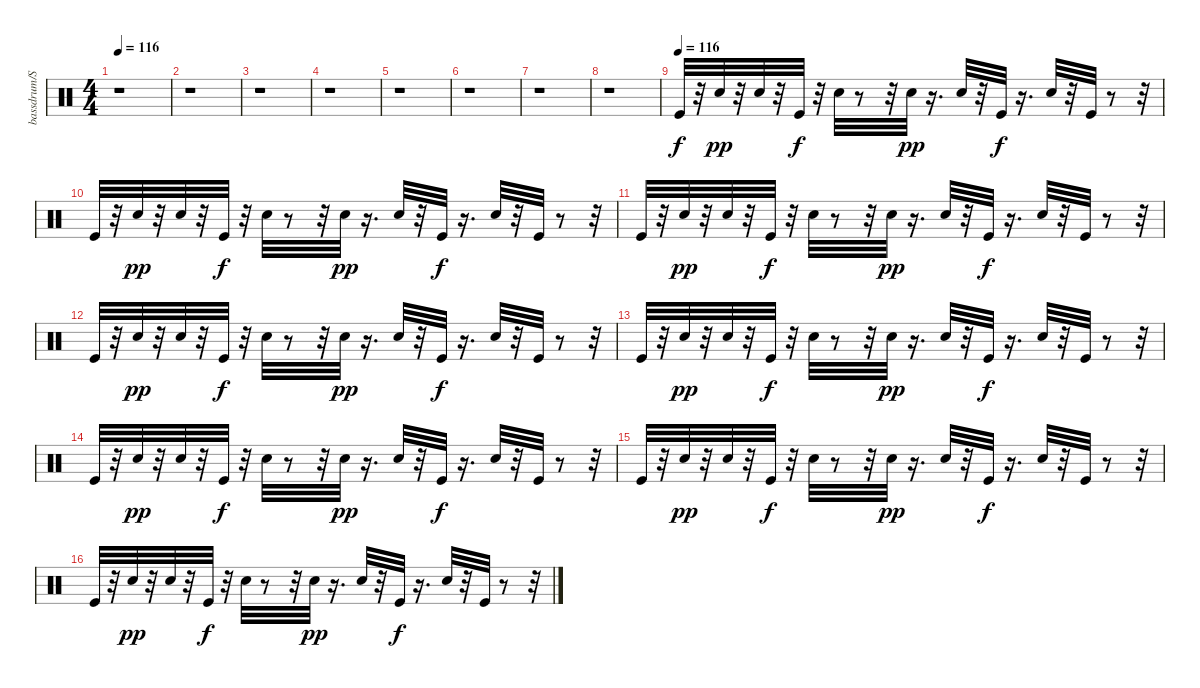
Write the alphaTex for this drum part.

\track ("bassdrum/SD" "bassdrum/S") {instrument percussion}
\staff {score}
\articulation defaults
\ts (4 4)
\tempo 116
\clef neutral
\ks c
r.1{dy f} |
r.1 |
r.1 |
r.1 |
r.1 |
r.1 |
r.1 |
r.1 |
\tempo (116)
"Kick (hit)".32 r.32 "Snare (hit) 2".32{dy pp} r.32 "Snare (hit) 2".32 r.32 "Kick (hit)".32{dy f} r.32 "Electric Snare (hit)".32 r.8 r.32 "Snare (hit) 2".32{dy pp} r.16{d} "Snare (hit) 2".32 r.32 "Kick (hit)".32{dy f} r.16{d} "Electric Snare (hit)".32 r.32 "Kick (hit)".32 r.8 r.32 |
"Kick (hit)".32 r.32 "Snare (hit) 2".32{dy pp} r.32 "Snare (hit) 2".32 r.32 "Kick (hit)".32{dy f} r.32 "Electric Snare (hit)".32 r.8 r.32 "Snare (hit) 2".32{dy pp} r.16{d} "Snare (hit) 2".32 r.32 "Kick (hit)".32{dy f} r.16{d} "Electric Snare (hit)".32 r.32 "Kick (hit)".32 r.8 r.32 |
"Kick (hit)".32 r.32 "Snare (hit) 2".32{dy pp} r.32 "Snare (hit) 2".32 r.32 "Kick (hit)".32{dy f} r.32 "Electric Snare (hit)".32 r.8 r.32 "Snare (hit) 2".32{dy pp} r.16{d} "Snare (hit) 2".32 r.32 "Kick (hit)".32{dy f} r.16{d} "Electric Snare (hit)".32 r.32 "Kick (hit)".32 r.8 r.32 |
"Kick (hit)".32 r.32 "Snare (hit) 2".32{dy pp} r.32 "Snare (hit) 2".32 r.32 "Kick (hit)".32{dy f} r.32 "Electric Snare (hit)".32 r.8 r.32 "Snare (hit) 2".32{dy pp} r.16{d} "Snare (hit) 2".32 r.32 "Kick (hit)".32{dy f} r.16{d} "Electric Snare (hit)".32 r.32 "Kick (hit)".32 r.8 r.32 |
"Kick (hit)".32 r.32 "Snare (hit) 2".32{dy pp} r.32 "Snare (hit) 2".32 r.32 "Kick (hit)".32{dy f} r.32 "Electric Snare (hit)".32 r.8 r.32 "Snare (hit) 2".32{dy pp} r.16{d} "Snare (hit) 2".32 r.32 "Kick (hit)".32{dy f} r.16{d} "Electric Snare (hit)".32 r.32 "Kick (hit)".32 r.8 r.32 |
"Kick (hit)".32 r.32 "Snare (hit) 2".32{dy pp} r.32 "Snare (hit) 2".32 r.32 "Kick (hit)".32{dy f} r.32 "Electric Snare (hit)".32 r.8 r.32 "Snare (hit) 2".32{dy pp} r.16{d} "Snare (hit) 2".32 r.32 "Kick (hit)".32{dy f} r.16{d} "Electric Snare (hit)".32 r.32 "Kick (hit)".32 r.8 r.32 |
"Kick (hit)".32 r.32 "Snare (hit) 2".32{dy pp} r.32 "Snare (hit) 2".32 r.32 "Kick (hit)".32{dy f} r.32 "Electric Snare (hit)".32 r.8 r.32 "Snare (hit) 2".32{dy pp} r.16{d} "Snare (hit) 2".32 r.32 "Kick (hit)".32{dy f} r.16{d} "Electric Snare (hit)".32 r.32 "Kick (hit)".32 r.8 r.32 |
"Kick (hit)".32 r.32 "Snare (hit) 2".32{dy pp} r.32 "Snare (hit) 2".32 r.32 "Kick (hit)".32{dy f} r.32 "Electric Snare (hit)".32 r.8 r.32 "Snare (hit) 2".32{dy pp} r.16{d} "Snare (hit) 2".32 r.32 "Kick (hit)".32{dy f} r.16{d} "Electric Snare (hit)".32 r.32 "Kick (hit)".32 r.8 r.32
